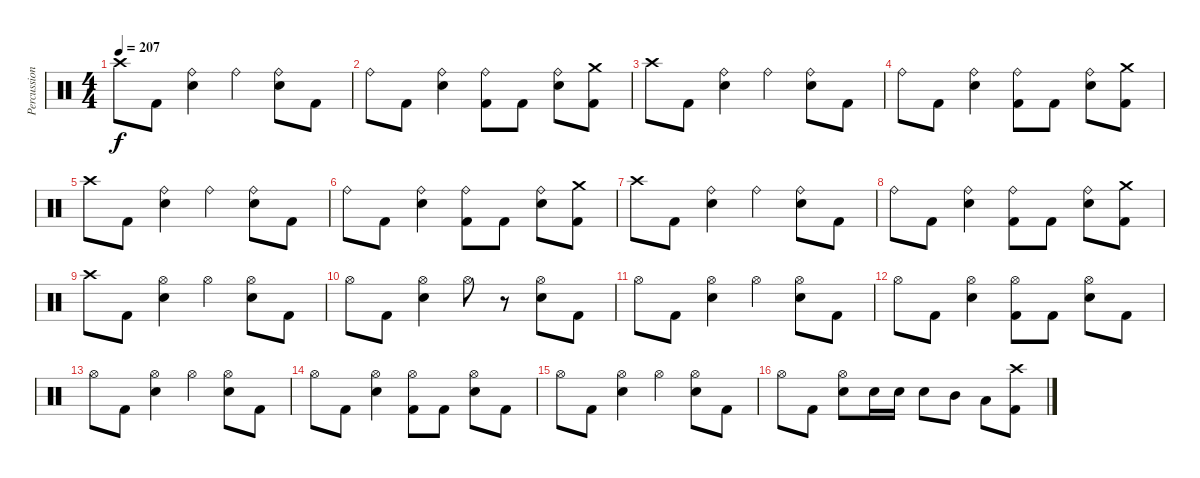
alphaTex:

\track ("Percussion" "Percussion") {instrument percussion}
\staff {score}
\articulation defaults
\ts (4 4)
\tempo 207
\clef neutral
\ks c "Crash high (hit)".8{dy f} "Kick (hit) 2".8
("Ride (bell)" "Snare (hit) 2").4 "Ride (bell)".4 ("Ride (bell)" "Snare (hit) 2").8 "Kick (hit) 2".8 |
"Ride (bell)".8 "Kick (hit) 2".8 ("Ride (bell)" "Snare (hit) 2").4 ("Ride (bell)" "Kick (hit) 2").8 "Kick (hit) 2".8 ("Ride (bell)" "Snare (hit) 2").8 ("Crash medium (hit)" "Kick (hit) 2").8 |
"Crash high (hit)".8 "Kick (hit) 2".8 ("Ride (bell)" "Snare (hit) 2").4 "Ride (bell)".4 ("Ride (bell)" "Snare (hit) 2").8 "Kick (hit) 2".8 |
"Ride (bell)".8 "Kick (hit) 2".8 ("Ride (bell)" "Snare (hit) 2").4 ("Ride (bell)" "Kick (hit) 2").8 "Kick (hit) 2".8 ("Ride (bell)" "Snare (hit) 2").8 ("Crash medium (hit)" "Kick (hit) 2").8 |
"Crash high (hit)".8 "Kick (hit) 2".8 ("Ride (bell)" "Snare (hit) 2").4 "Ride (bell)".4 ("Ride (bell)" "Snare (hit) 2").8 "Kick (hit) 2".8 |
"Ride (bell)".8 "Kick (hit) 2".8 ("Ride (bell)" "Snare (hit) 2").4 ("Ride (bell)" "Kick (hit) 2").8 "Kick (hit) 2".8 ("Ride (bell)" "Snare (hit) 2").8 ("Crash medium (hit)" "Kick (hit) 2").8 |
"Crash high (hit)".8 "Kick (hit) 2".8 ("Ride (bell)" "Snare (hit) 2").4 "Ride (bell)".4 ("Ride (bell)" "Snare (hit) 2").8 "Kick (hit) 2".8 |
"Ride (bell)".8 "Kick (hit) 2".8 ("Ride (bell)" "Snare (hit) 2").4 ("Ride (bell)" "Kick (hit) 2").8 "Kick (hit) 2".8 ("Ride (bell)" "Snare (hit) 2").8 ("Crash medium (hit)" "Kick (hit) 2").8 |
"Crash high (hit)".8 "Kick (hit) 2".8 ("Hi-Hat (open)" "Snare (hit) 2").4 "Hi-Hat (open)".4 ("Hi-Hat (open)" "Snare (hit) 2").8 "Kick (hit) 2".8 |
"Hi-Hat (open)".8 "Kick (hit) 2".8 ("Hi-Hat (open)" "Snare (hit) 2").4 "Hi-Hat (open)".8 r.8 ("Hi-Hat (open)" "Snare (hit) 2").8 "Kick (hit) 2".8 |
"Hi-Hat (open)".8 "Kick (hit) 2".8 ("Hi-Hat (open)" "Snare (hit) 2").4 "Hi-Hat (open)".4 ("Hi-Hat (open)" "Snare (hit) 2").8 "Kick (hit) 2".8 |
"Hi-Hat (open)".8 "Kick (hit) 2".8 ("Hi-Hat (open)" "Snare (hit) 2").4 ("Hi-Hat (open)" "Kick (hit) 2").8 "Kick (hit) 2".8 ("Hi-Hat (open)" "Snare (hit) 2").8 "Kick (hit) 2".8 |
"Hi-Hat (open)".8 "Kick (hit) 2".8 ("Hi-Hat (open)" "Snare (hit) 2").4 "Hi-Hat (open)".4 ("Hi-Hat (open)" "Snare (hit) 2").8 "Kick (hit) 2".8 |
"Hi-Hat (open)".8 "Kick (hit) 2".8 ("Hi-Hat (open)" "Snare (hit) 2").4 ("Hi-Hat (open)" "Kick (hit) 2").8 "Kick (hit) 2".8 ("Hi-Hat (open)" "Snare (hit) 2").8 "Kick (hit) 2".8 |
"Hi-Hat (open)".8 "Kick (hit) 2".8 ("Hi-Hat (open)" "Snare (hit) 2").4 "Hi-Hat (open)".4 ("Hi-Hat (open)" "Snare (hit) 2").8 "Kick (hit) 2".8 |
"Hi-Hat (open)".8 "Kick (hit) 2".8 ("Hi-Hat (open)" "Snare (hit) 2").8 "Snare (hit) 2".16 "Snare (hit) 2".16 "Snare (hit) 2".8 "Mid Tom (hit)".8 "Low Tom (hit)".8 ("Crash high (hit)" "Kick (hit) 2").8
